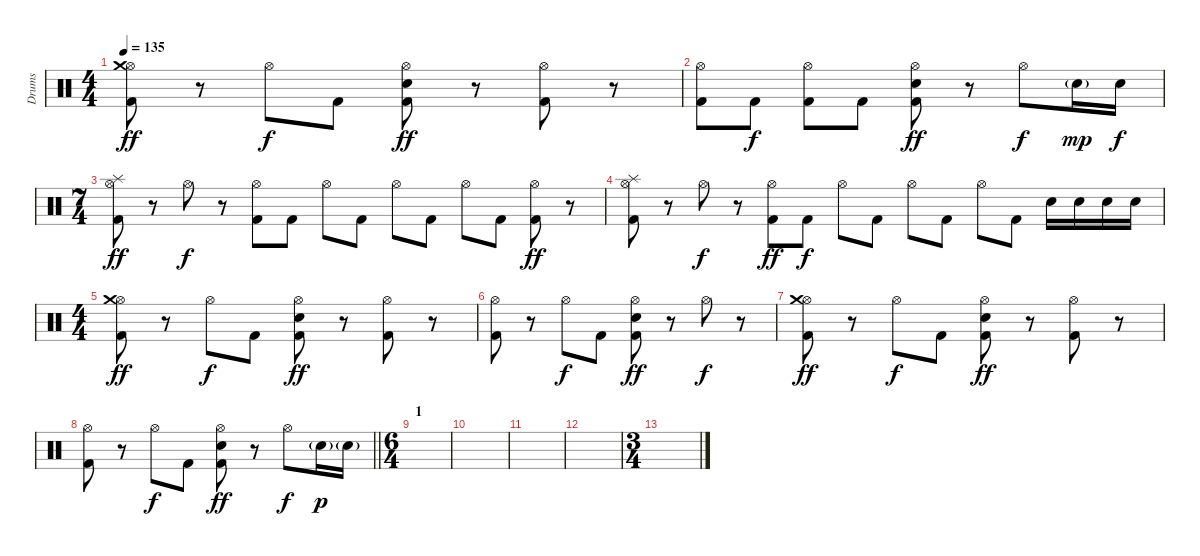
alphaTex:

\track ("Drums" "Drums") {instrument percussion}
\staff {score}
\articulation defaults
\ts (4 4)
\tempo 135
\clef neutral
\ks c
("Hi-Hat (open)" "Crash medium (hit)" "Kick (hit) 2").8{dy ff} r.8 "Hi-Hat (open)".8{dy f} "Kick (hit) 2".8 ("Hi-Hat (open)" "Snare (hit) 2" "Kick (hit) 2").8{dy ff} r.8 ("Hi-Hat (open)" "Kick (hit) 2").8 r.8 |
("Hi-Hat (open)" "Kick (hit) 2").8 "Kick (hit) 2".8{dy f} ("Hi-Hat (open)" "Kick (hit) 2").8 "Kick (hit) 2".8 ("Hi-Hat (open)" "Snare (hit) 2" "Kick (hit) 2").8{dy ff} r.8 "Hi-Hat (open)".8{dy f} "Snare (hit) 2"{g}.16{dy mp} "Snare (hit) 2".16{dy f} |
\ts (7 4)
("Hi-Hat (open)" "Splash (hit)" "Kick (hit) 2").8{dy ff} r.8 "Hi-Hat (open)".8{dy f} r.8 ("Hi-Hat (open)" "Kick (hit) 2").8 "Kick (hit) 2".8 "Hi-Hat (open)".8 "Kick (hit) 2".8 "Hi-Hat (open)".8 "Kick (hit) 2".8 "Hi-Hat (open)".8 "Kick (hit) 2".8 ("Hi-Hat (open)" "Kick (hit) 2").8{dy ff} r.8 |
("Hi-Hat (open)" "Splash (hit)" "Kick (hit) 2").8 r.8 "Hi-Hat (open)".8{dy f} r.8 ("Hi-Hat (open)" "Kick (hit) 2").8{dy ff} "Kick (hit) 2".8{dy f} "Hi-Hat (open)".8 "Kick (hit) 2".8 "Hi-Hat (open)".8 "Kick (hit) 2".8 "Hi-Hat (open)".8 "Kick (hit) 2".8 "Snare (hit) 2".16 "Snare (hit) 2".16 "Snare (hit) 2".16 "Snare (hit) 2".16 |
\ts (4 4)
("Hi-Hat (open)" "Crash medium (hit)" "Kick (hit) 2").8{dy ff} r.8 "Hi-Hat (open)".8{dy f} "Kick (hit) 2".8 ("Hi-Hat (open)" "Snare (hit) 2" "Kick (hit) 2").8{dy ff} r.8 ("Hi-Hat (open)" "Kick (hit) 2").8 r.8 |
("Hi-Hat (open)" "Kick (hit) 2").8 r.8 "Hi-Hat (open)".8{dy f} "Kick (hit) 2".8 ("Hi-Hat (open)" "Snare (hit) 2" "Kick (hit) 2").8{dy ff} r.8 "Hi-Hat (open)".8{dy f} r.8 |
("Hi-Hat (open)" "Crash medium (hit)" "Kick (hit) 2").8{dy ff} r.8 "Hi-Hat (open)".8{dy f} "Kick (hit) 2".8 ("Hi-Hat (open)" "Snare (hit) 2" "Kick (hit) 2").8{dy ff} r.8 ("Hi-Hat (open)" "Kick (hit) 2").8 r.8 |
\barLineRight lightlight
("Hi-Hat (open)" "Kick (hit) 2").8 r.8 "Hi-Hat (open)".8{dy f} "Kick (hit) 2".8 ("Hi-Hat (open)" "Snare (hit) 2" "Kick (hit) 2").8{dy ff} r.8 "Hi-Hat (open)".8{dy f} "Snare (hit) 2"{g}.16{dy p} "Snare (hit) 2"{g}.16 |
\ts (6 4)
\section ("" "1")
|
|
|
|
\ts (3 4)
